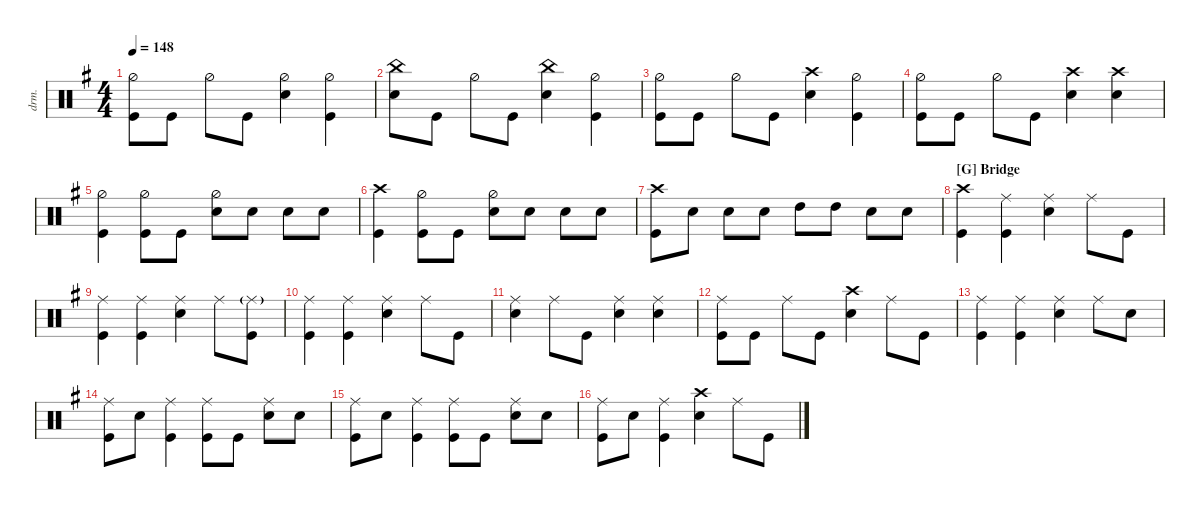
\defaultSystemsLayout 4
\hideDynamics
\bracketExtendMode nobrackets
\otherSystemsTrackNameOrientation horizontal
\track ("Drums" "drm.") {multiBarRest instrument percussion}
\staff
\articulation defaults
\ts (4 4)
\tempo 148
\clef neutral
\ks eminor
("Hi-Hat (half)"{acc forcenatural} "Kick (hit)"{acc forcenatural}).8{dy mf beam Down} "Kick (hit)"{acc forcenatural}.8{beam Down} "Hi-Hat (half)"{acc forcenatural}.8{beam Down} "Kick (hit)"{acc forcenatural}.8{beam Down} ("Snare (hit) 2"{acc forcenatural} "Hi-Hat (half)"{acc forcenatural}).4{beam Down} ("Kick (hit)"{acc forcenatural} "Hi-Hat (half)"{acc forcenatural}).4{beam Down} |
("Snare (hit) 2"{acc forcenatural} "China (hit)"{acc forcenatural}).8{beam Down} "Kick (hit)"{acc forcenatural}.8{beam Down} "Hi-Hat (half)"{acc forcenatural}.8{beam Down} "Kick (hit)"{acc forcenatural}.8{beam Down} ("Snare (hit) 2"{acc forcenatural} "China (hit)"{acc forcenatural}).4{beam Down} ("Kick (hit)"{acc forcenatural} "Hi-Hat (half)"{acc forcenatural}).4{beam Down} |
("Hi-Hat (half)"{acc forcenatural} "Kick (hit)"{acc forcenatural}).8{beam Down} "Kick (hit)"{acc forcenatural}.8{beam Down} "Hi-Hat (half)"{acc forcenatural}.8{beam Down} "Kick (hit)"{acc forcenatural}.8{beam Down} ("Snare (hit) 2"{acc forcenatural} "Crash high (hit)"{acc forcenatural}).4{beam Down} ("Kick (hit)"{acc forcenatural} "Hi-Hat (half)"{acc forcenatural}).4{beam Down} |
("Hi-Hat (half)"{acc forcenatural} "Kick (hit)"{acc forcenatural}).8{beam Down} "Kick (hit)"{acc forcenatural}.8{beam Down} "Hi-Hat (half)"{acc forcenatural}.8{beam Down} "Kick (hit)"{acc forcenatural}.8{beam Down} ("Snare (hit) 2"{acc forcenatural} "Crash high (hit)"{acc forcenatural}).4{beam Down} ("Snare (hit) 2"{acc forcenatural} "Crash high (hit)"{acc forcenatural}).4{beam Down} |
("Hi-Hat (half)"{acc forcenatural} "Kick (hit)"{acc forcenatural}).4{beam Down} ("Hi-Hat (half)"{acc forcenatural} "Kick (hit)"{acc forcenatural}).8{beam Down} "Kick (hit)"{acc forcenatural}.8{beam Down} ("Snare (hit) 2"{acc forcenatural} "Hi-Hat (half)"{acc forcenatural}).8{beam Down} "Snare (hit) 2"{acc forcenatural}.8{beam Down} "Snare (hit) 2"{acc forcenatural}.8{beam Down} "Snare (hit) 2"{acc forcenatural}.8{beam Down} |
("Kick (hit)"{acc forcenatural} "Crash high (hit)"{acc forcenatural}).4{beam Down} ("Hi-Hat (half)"{acc forcenatural} "Kick (hit)"{acc forcenatural}).8{beam Down} "Kick (hit)"{acc forcenatural}.8{beam Down} ("Snare (hit) 2"{acc forcenatural} "Hi-Hat (half)"{acc forcenatural}).8{beam Down} "Snare (hit) 2"{acc forcenatural}.8{beam Down} "Snare (hit) 2"{acc forcenatural}.8{beam Down} "Snare (hit) 2"{acc forcenatural}.8{beam Down} |
("Kick (hit)"{acc forcenatural} "Crash high (hit)"{acc forcenatural}).8{beam Down} "Snare (hit) 2"{acc forcenatural}.8{beam Down} "Snare (hit) 2"{acc forcenatural}.8{beam Down} "Snare (hit) 2"{acc forcenatural}.8{beam Down} "High Tom (hit)"{acc forcenatural}.8{dy ff beam Down} "High Tom (hit)"{acc forcenatural}.8{beam Down} "Snare (hit) 2"{acc forcenatural}.8{dy mf beam Down} "Snare (hit) 2"{acc forcenatural}.8{beam Down} |
\section ("G" "Bridge")
("Kick (hit)"{acc forcenatural} "Crash high (hit)"{acc forcenatural}).4{beam Down} ("Ride (middle)"{acc forcenatural} "Kick (hit)"{acc forcenatural}).4{beam Down} ("Ride (middle)"{acc forcenatural} "Snare (hit) 2"{acc forcenatural}).4{beam Down} "Ride (middle)"{acc forcenatural}.8{beam Down} "Kick (hit)"{acc forcenatural}.8{beam Down} |
("Kick (hit)"{acc forcenatural} "Ride (middle)"{acc forcenatural}).4{beam Down} ("Kick (hit)"{acc forcenatural} "Ride (middle)"{acc forcenatural}).4{beam Down} ("Ride (middle)"{acc forcenatural} "Snare (hit) 2"{acc forcenatural}).4{beam Down} "Ride (middle)"{acc forcenatural}.8{beam Down} ("Ride (middle)"{g acc forcenatural} "Kick (hit)"{acc forcenatural}).8{beam Down} |
("Ride (middle)"{acc forcenatural} "Kick (hit)"{acc forcenatural}).4{beam Down} ("Ride (middle)"{acc forcenatural} "Kick (hit)"{acc forcenatural}).4{beam Down} ("Ride (middle)"{acc forcenatural} "Snare (hit) 2"{acc forcenatural}).4{beam Down} "Ride (middle)"{acc forcenatural}.8{beam Down} "Kick (hit)"{acc forcenatural}.8{beam Down} |
("Ride (middle)"{acc forcenatural} "Snare (hit) 2"{acc forcenatural}).4{beam Down} "Ride (middle)"{acc forcenatural}.8{beam Down} "Kick (hit)"{acc forcenatural}.8{beam Down} ("Ride (middle)"{acc forcenatural} "Snare (hit) 2"{acc forcenatural}).4{beam Down} ("Ride (middle)"{acc forcenatural} "Snare (hit) 2"{acc forcenatural}).4{beam Down} |
("Ride (middle)"{acc forcenatural} "Kick (hit)"{acc forcenatural}).8{beam Down} "Kick (hit)"{acc forcenatural}.8{beam Down} "Ride (middle)"{acc forcenatural}.8{beam Down} "Kick (hit)"{acc forcenatural}.8{beam Down} ("Crash high (hit)"{acc forcenatural} "Snare (hit) 2"{acc forcenatural}).4{beam Down} "Ride (middle)"{acc forcenatural}.8{beam Down} "Kick (hit)"{acc forcenatural}.8{beam Down} |
("Ride (middle)"{acc forcenatural} "Kick (hit)"{acc forcenatural}).4{beam Down} ("Ride (middle)"{acc forcenatural} "Kick (hit)"{acc forcenatural}).4{beam Down} ("Ride (middle)"{acc forcenatural} "Snare (hit) 2"{acc forcenatural}).4{beam Down} "Ride (middle)"{acc forcenatural}.8{beam Down} "Snare (hit) 2"{acc forcenatural}.8{beam Down} |
("Ride (middle)"{acc forcenatural} "Kick (hit)"{acc forcenatural}).8{beam Down} "Snare (hit) 2"{acc forcenatural}.8{beam Down} ("Ride (middle)"{acc forcenatural} "Kick (hit)"{acc forcenatural}).4{beam Down} ("Ride (middle)"{acc forcenatural} "Kick (hit)"{acc forcenatural}).8{beam Down} "Kick (hit)"{acc forcenatural}.8{beam Down} ("Ride (middle)"{acc forcenatural} "Snare (hit) 2"{acc forcenatural}).8{beam Down} "Snare (hit) 2"{acc forcenatural}.8{beam Down} |
("Ride (middle)"{acc forcenatural} "Kick (hit)"{acc forcenatural}).8{beam Down} "Snare (hit) 2"{acc forcenatural}.8{beam Down} ("Ride (middle)"{acc forcenatural} "Kick (hit)"{acc forcenatural}).4{beam Down} ("Ride (middle)"{acc forcenatural} "Kick (hit)"{acc forcenatural}).8{beam Down} "Kick (hit)"{acc forcenatural}.8{beam Down} ("Ride (middle)"{acc forcenatural} "Snare (hit) 2"{acc forcenatural}).8{beam Down} "Snare (hit) 2"{acc forcenatural}.8{beam Down} |
("Ride (middle)"{acc forcenatural} "Kick (hit)"{acc forcenatural}).8{beam Down} "Snare (hit) 2"{acc forcenatural}.8{beam Down} ("Ride (middle)"{acc forcenatural} "Kick (hit)"{acc forcenatural}).4{beam Down} ("Snare (hit) 2"{acc forcenatural} "Crash high (hit)"{acc forcenatural}).4{beam Down} "Ride (middle)"{acc forcenatural}.8{beam Down} "Kick (hit)"{acc forcenatural}.8{beam Down}
